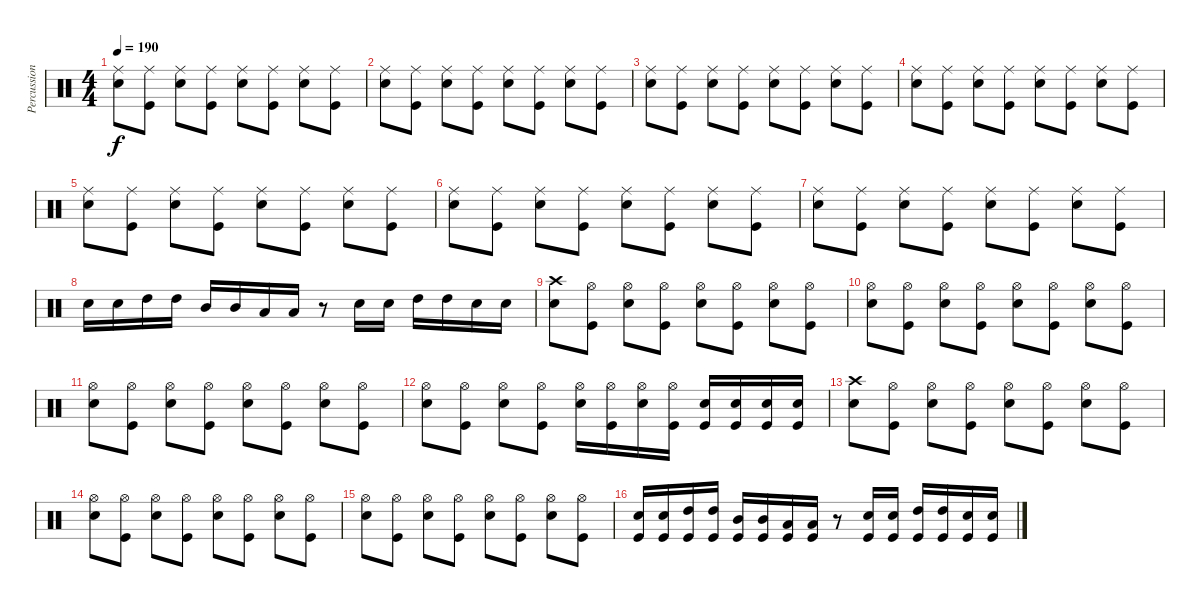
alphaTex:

\track ("Percussioni" "Percussion") {instrument percussion}
\staff {score}
\articulation defaults
\ts (4 4)
\tempo 190
\clef neutral
\ks c
("Ride (middle)" "Electric Snare (hit)").8{dy f} ("Ride (middle)" "Kick (hit)").8 ("Ride (middle)" "Electric Snare (hit)").8 ("Ride (middle)" "Kick (hit)").8 ("Ride (middle)" "Electric Snare (hit)").8 ("Ride (middle)" "Kick (hit)").8 ("Ride (middle)" "Electric Snare (hit)").8 ("Ride (middle)" "Kick (hit)").8 |
("Ride (middle)" "Electric Snare (hit)").8 ("Ride (middle)" "Kick (hit)").8 ("Ride (middle)" "Electric Snare (hit)").8 ("Ride (middle)" "Kick (hit)").8 ("Ride (middle)" "Electric Snare (hit)").8 ("Ride (middle)" "Kick (hit)").8 ("Ride (middle)" "Electric Snare (hit)").8 ("Ride (middle)" "Kick (hit)").8 |
("Ride (middle)" "Electric Snare (hit)").8 ("Ride (middle)" "Kick (hit)").8 ("Ride (middle)" "Electric Snare (hit)").8 ("Ride (middle)" "Kick (hit)").8 ("Ride (middle)" "Electric Snare (hit)").8 ("Ride (middle)" "Kick (hit)").8 ("Ride (middle)" "Electric Snare (hit)").8 ("Ride (middle)" "Kick (hit)").8 |
("Ride (middle)" "Electric Snare (hit)").8 ("Ride (middle)" "Kick (hit)").8 ("Ride (middle)" "Electric Snare (hit)").8 ("Ride (middle)" "Kick (hit)").8 ("Ride (middle)" "Electric Snare (hit)").8 ("Ride (middle)" "Kick (hit)").8 ("Ride (middle)" "Electric Snare (hit)").8 ("Ride (middle)" "Kick (hit)").8 |
("Ride (middle)" "Electric Snare (hit)").8 ("Ride (middle)" "Kick (hit)").8 ("Ride (middle)" "Electric Snare (hit)").8 ("Ride (middle)" "Kick (hit)").8 ("Ride (middle)" "Electric Snare (hit)").8 ("Ride (middle)" "Kick (hit)").8 ("Ride (middle)" "Electric Snare (hit)").8 ("Ride (middle)" "Kick (hit)").8 |
("Ride (middle)" "Electric Snare (hit)").8 ("Ride (middle)" "Kick (hit)").8 ("Ride (middle)" "Electric Snare (hit)").8 ("Ride (middle)" "Kick (hit)").8 ("Ride (middle)" "Electric Snare (hit)").8 ("Ride (middle)" "Kick (hit)").8 ("Ride (middle)" "Electric Snare (hit)").8 ("Ride (middle)" "Kick (hit)").8 |
("Ride (middle)" "Electric Snare (hit)").8 ("Ride (middle)" "Kick (hit)").8 ("Ride (middle)" "Electric Snare (hit)").8 ("Ride (middle)" "Kick (hit)").8 ("Ride (middle)" "Electric Snare (hit)").8 ("Ride (middle)" "Kick (hit)").8 ("Ride (middle)" "Electric Snare (hit)").8 ("Ride (middle)" "Kick (hit)").8 |
"Electric Snare (hit)".16 "Electric Snare (hit)".16 "High Tom (hit)".16 "High Tom (hit)".16 "Mid Tom (hit)".16 "Mid Tom (hit)".16 "Low Tom (hit)".16 "Low Tom (hit)".16 r.8 "Electric Snare (hit)".16 "Electric Snare (hit)".16 "High Tom (hit)".16 "High Tom (hit)".16 "Snare (hit) 2".16 "Snare (hit) 2".16 |
("Crash high (hit)" "Electric Snare (hit)").8 ("Hi-Hat (open)" "Kick (hit)").8 ("Hi-Hat (open)" "Electric Snare (hit)").8 ("Hi-Hat (open)" "Kick (hit)").8 ("Hi-Hat (open)" "Electric Snare (hit)").8 ("Hi-Hat (open)" "Kick (hit)").8 ("Hi-Hat (open)" "Electric Snare (hit)").8 ("Hi-Hat (open)" "Kick (hit)").8 |
("Hi-Hat (open)" "Electric Snare (hit)").8 ("Hi-Hat (open)" "Kick (hit)").8 ("Hi-Hat (open)" "Electric Snare (hit)").8 ("Hi-Hat (open)" "Kick (hit)").8 ("Hi-Hat (open)" "Electric Snare (hit)").8 ("Hi-Hat (open)" "Kick (hit)").8 ("Hi-Hat (open)" "Electric Snare (hit)").8 ("Hi-Hat (open)" "Kick (hit)").8 |
("Hi-Hat (open)" "Electric Snare (hit)").8 ("Hi-Hat (open)" "Kick (hit)").8 ("Hi-Hat (open)" "Electric Snare (hit)").8 ("Hi-Hat (open)" "Kick (hit)").8 ("Hi-Hat (open)" "Electric Snare (hit)").8 ("Hi-Hat (open)" "Kick (hit)").8 ("Hi-Hat (open)" "Electric Snare (hit)").8 ("Hi-Hat (open)" "Kick (hit)").8 |
("Hi-Hat (open)" "Electric Snare (hit)").8 ("Hi-Hat (open)" "Kick (hit)").8 ("Hi-Hat (open)" "Electric Snare (hit)").8 ("Hi-Hat (open)" "Kick (hit)").8 ("Hi-Hat (open)" "Electric Snare (hit)").16 ("Hi-Hat (open)" "Kick (hit)").16 ("Hi-Hat (open)" "Electric Snare (hit)").16 ("Hi-Hat (open)" "Kick (hit)").16 ("Electric Snare (hit)" "Kick (hit)").16 ("Electric Snare (hit)" "Kick (hit)").16 ("Electric Snare (hit)" "Kick (hit)").16 ("Electric Snare (hit)" "Kick (hit)").16 |
("Crash high (hit)" "Electric Snare (hit)").8 ("Hi-Hat (open)" "Kick (hit)").8 ("Hi-Hat (open)" "Electric Snare (hit)").8 ("Hi-Hat (open)" "Kick (hit)").8 ("Hi-Hat (open)" "Electric Snare (hit)").8 ("Hi-Hat (open)" "Kick (hit)").8 ("Hi-Hat (open)" "Electric Snare (hit)").8 ("Hi-Hat (open)" "Kick (hit)").8 |
("Hi-Hat (open)" "Electric Snare (hit)").8 ("Hi-Hat (open)" "Kick (hit)").8 ("Hi-Hat (open)" "Electric Snare (hit)").8 ("Hi-Hat (open)" "Kick (hit)").8 ("Hi-Hat (open)" "Electric Snare (hit)").8 ("Hi-Hat (open)" "Kick (hit)").8 ("Hi-Hat (open)" "Electric Snare (hit)").8 ("Hi-Hat (open)" "Kick (hit)").8 |
("Hi-Hat (open)" "Electric Snare (hit)").8 ("Hi-Hat (open)" "Kick (hit)").8 ("Hi-Hat (open)" "Electric Snare (hit)").8 ("Hi-Hat (open)" "Kick (hit)").8 ("Hi-Hat (open)" "Electric Snare (hit)").8 ("Hi-Hat (open)" "Kick (hit)").8 ("Hi-Hat (open)" "Electric Snare (hit)").8 ("Hi-Hat (open)" "Kick (hit)").8 |
("Electric Snare (hit)" "Kick (hit)").16 ("Electric Snare (hit)" "Kick (hit)").16 ("High Tom (hit)" "Kick (hit)").16 ("High Tom (hit)" "Kick (hit)").16 ("Mid Tom (hit)" "Kick (hit)").16 ("Mid Tom (hit)" "Kick (hit)").16 ("Low Tom (hit)" "Kick (hit)").16 ("Low Tom (hit)" "Kick (hit)").16 r.8 ("Electric Snare (hit)" "Kick (hit)").16 ("Electric Snare (hit)" "Kick (hit)").16 ("High Tom (hit)" "Kick (hit)").16 ("High Tom (hit)" "Kick (hit)").16 ("Snare (hit) 2" "Kick (hit)").16 ("Snare (hit) 2" "Kick (hit)").16
